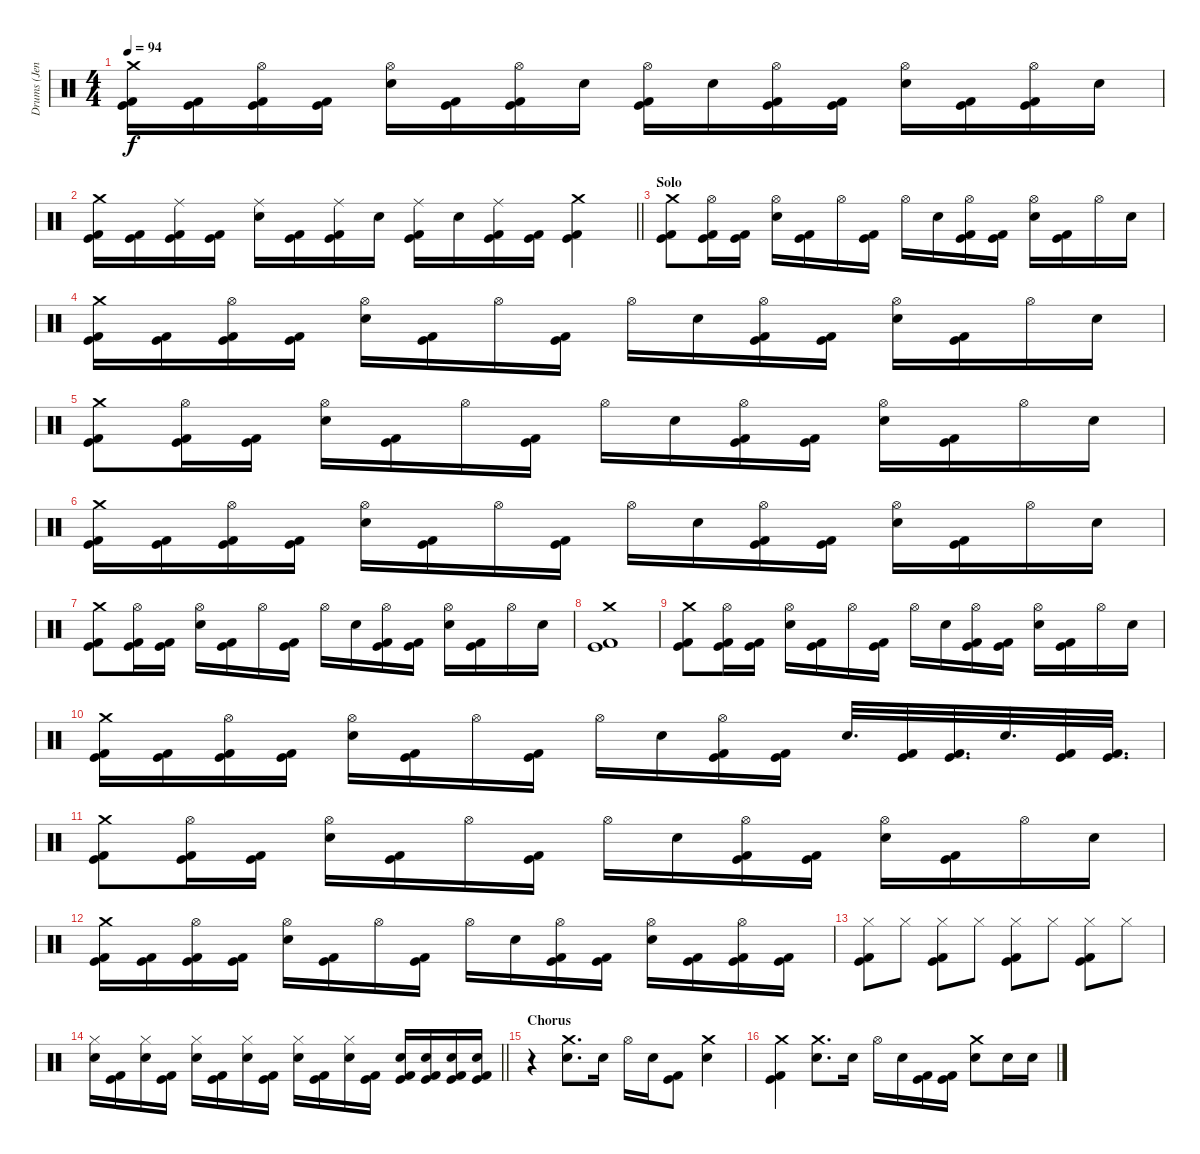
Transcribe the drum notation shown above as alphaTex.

\track ("Drums (Jen Ledger)" "Drums (Jen") {instrument percussion}
\staff {score}
\articulation defaults
\ts (4 4)
\tempo 94
\clef neutral
\ks c
("Crash medium (hit)" "Kick (hit) 2" "Kick (hit)").16{dy f} ("Kick (hit) 2" "Kick (hit)").16 ("Hi-Hat (open)" "Kick (hit) 2" "Kick (hit)").16 ("Kick (hit) 2" "Kick (hit)").16 ("Electric Snare (hit)" "Hi-Hat (open)").16 ("Kick (hit) 2" "Kick (hit)").16 ("Hi-Hat (open)" "Kick (hit) 2" "Kick (hit)").16 "Electric Snare (hit)".16 ("Hi-Hat (open)" "Kick (hit) 2" "Kick (hit)").16 "Electric Snare (hit)".16 ("Hi-Hat (open)" "Kick (hit) 2" "Kick (hit)").16 ("Kick (hit) 2" "Kick (hit)").16 ("Electric Snare (hit)" "Hi-Hat (open)").16 ("Kick (hit) 2" "Kick (hit)").16 ("Hi-Hat (open)" "Kick (hit) 2" "Kick (hit)").16 "Electric Snare (hit)".16 |
\barLineRight lightlight
("Crash medium (hit)" "Kick (hit) 2" "Kick (hit)").16 ("Kick (hit) 2" "Kick (hit)").16 ("Ride (middle)" "Kick (hit) 2" "Kick (hit)").16 ("Kick (hit) 2" "Kick (hit)").16 ("Electric Snare (hit)" "Ride (middle)").16 ("Kick (hit) 2" "Kick (hit)").16 ("Ride (middle)" "Kick (hit) 2" "Kick (hit)").16 "Electric Snare (hit)".16 ("Ride (middle)" "Kick (hit) 2" "Kick (hit)").16 "Electric Snare (hit)".16 ("Ride (middle)" "Kick (hit) 2" "Kick (hit)").16 ("Kick (hit) 2" "Kick (hit)").16 ("Crash medium (hit)" "Kick (hit) 2" "Kick (hit)").4 |
\section ("" "Solo")
("Crash medium (hit)" "Kick (hit) 2" "Kick (hit)").8 ("Hi-Hat (open)" "Kick (hit) 2" "Kick (hit)").16 ("Kick (hit) 2" "Kick (hit)").16 ("Electric Snare (hit)" "Hi-Hat (open)").16 ("Kick (hit) 2" "Kick (hit)").16 "Hi-Hat (open)".16 ("Kick (hit) 2" "Kick (hit)").16 "Hi-Hat (open)".16 "Electric Snare (hit)".16 ("Hi-Hat (open)" "Kick (hit) 2" "Kick (hit)").16 ("Kick (hit) 2" "Kick (hit)").16 ("Electric Snare (hit)" "Hi-Hat (open)").16 ("Kick (hit) 2" "Kick (hit)").16 "Hi-Hat (open)".16 "Electric Snare (hit)".16 |
("Crash medium (hit)" "Kick (hit) 2" "Kick (hit)").16 ("Kick (hit) 2" "Kick (hit)").16 ("Hi-Hat (open)" "Kick (hit) 2" "Kick (hit)").16 ("Kick (hit) 2" "Kick (hit)").16 ("Electric Snare (hit)" "Hi-Hat (open)").16 ("Kick (hit) 2" "Kick (hit)").16 "Hi-Hat (open)".16 ("Kick (hit) 2" "Kick (hit)").16 "Hi-Hat (open)".16 "Electric Snare (hit)".16 ("Hi-Hat (open)" "Kick (hit) 2" "Kick (hit)").16 ("Kick (hit) 2" "Kick (hit)").16 ("Electric Snare (hit)" "Hi-Hat (open)").16 ("Kick (hit) 2" "Kick (hit)").16 "Hi-Hat (open)".16 "Electric Snare (hit)".16 |
("Crash medium (hit)" "Kick (hit) 2" "Kick (hit)").8 ("Hi-Hat (open)" "Kick (hit) 2" "Kick (hit)").16 ("Kick (hit) 2" "Kick (hit)").16 ("Electric Snare (hit)" "Hi-Hat (open)").16 ("Kick (hit) 2" "Kick (hit)").16 "Hi-Hat (open)".16 ("Kick (hit) 2" "Kick (hit)").16 "Hi-Hat (open)".16 "Electric Snare (hit)".16 ("Hi-Hat (open)" "Kick (hit) 2" "Kick (hit)").16 ("Kick (hit) 2" "Kick (hit)").16 ("Electric Snare (hit)" "Hi-Hat (open)").16 ("Kick (hit) 2" "Kick (hit)").16 "Hi-Hat (open)".16 "Electric Snare (hit)".16 |
("Crash medium (hit)" "Kick (hit) 2" "Kick (hit)").16 ("Kick (hit) 2" "Kick (hit)").16 ("Hi-Hat (open)" "Kick (hit) 2" "Kick (hit)").16 ("Kick (hit) 2" "Kick (hit)").16 ("Electric Snare (hit)" "Hi-Hat (open)").16 ("Kick (hit) 2" "Kick (hit)").16 "Hi-Hat (open)".16 ("Kick (hit) 2" "Kick (hit)").16 "Hi-Hat (open)".16 "Electric Snare (hit)".16 ("Hi-Hat (open)" "Kick (hit) 2" "Kick (hit)").16 ("Kick (hit) 2" "Kick (hit)").16 ("Electric Snare (hit)" "Hi-Hat (open)").16 ("Kick (hit) 2" "Kick (hit)").16 "Hi-Hat (open)".16 "Electric Snare (hit)".16 |
("Crash medium (hit)" "Kick (hit) 2" "Kick (hit)").8 ("Hi-Hat (open)" "Kick (hit) 2" "Kick (hit)").16 ("Kick (hit) 2" "Kick (hit)").16 ("Electric Snare (hit)" "Hi-Hat (open)").16 ("Kick (hit) 2" "Kick (hit)").16 "Hi-Hat (open)".16 ("Kick (hit) 2" "Kick (hit)").16 "Hi-Hat (open)".16 "Electric Snare (hit)".16 ("Hi-Hat (open)" "Kick (hit) 2" "Kick (hit)").16 ("Kick (hit) 2" "Kick (hit)").16 ("Electric Snare (hit)" "Hi-Hat (open)").16 ("Kick (hit) 2" "Kick (hit)").16 "Hi-Hat (open)".16 "Electric Snare (hit)".16 |
("Crash medium (hit)" "Kick (hit) 2" "Kick (hit)").1 |
("Crash medium (hit)" "Kick (hit) 2" "Kick (hit)").8 ("Hi-Hat (open)" "Kick (hit) 2" "Kick (hit)").16 ("Kick (hit) 2" "Kick (hit)").16 ("Electric Snare (hit)" "Hi-Hat (open)").16 ("Kick (hit) 2" "Kick (hit)").16 "Hi-Hat (open)".16 ("Kick (hit) 2" "Kick (hit)").16 "Hi-Hat (open)".16 "Electric Snare (hit)".16 ("Hi-Hat (open)" "Kick (hit) 2" "Kick (hit)").16 ("Kick (hit) 2" "Kick (hit)").16 ("Electric Snare (hit)" "Hi-Hat (open)").16 ("Kick (hit) 2" "Kick (hit)").16 "Hi-Hat (open)".16 "Electric Snare (hit)".16 |
("Crash medium (hit)" "Kick (hit) 2" "Kick (hit)").16 ("Kick (hit) 2" "Kick (hit)").16 ("Hi-Hat (open)" "Kick (hit) 2" "Kick (hit)").16 ("Kick (hit) 2" "Kick (hit)").16 ("Electric Snare (hit)" "Hi-Hat (open)").16 ("Kick (hit) 2" "Kick (hit)").16 "Hi-Hat (open)".16 ("Kick (hit) 2" "Kick (hit)").16 "Hi-Hat (open)".16 "Electric Snare (hit)".16 ("Hi-Hat (open)" "Kick (hit) 2" "Kick (hit)").16 ("Kick (hit) 2" "Kick (hit)").16 "Electric Snare (hit)".32{d} ("Kick (hit) 2" "Kick (hit)").32 ("Kick (hit) 2" "Kick (hit)").32{d} "Electric Snare (hit)".32{d} ("Kick (hit) 2" "Kick (hit)").32 ("Kick (hit) 2" "Kick (hit)").32{d} |
("Crash medium (hit)" "Kick (hit) 2" "Kick (hit)").8 ("Hi-Hat (open)" "Kick (hit) 2" "Kick (hit)").16 ("Kick (hit) 2" "Kick (hit)").16 ("Electric Snare (hit)" "Hi-Hat (open)").16 ("Kick (hit) 2" "Kick (hit)").16 "Hi-Hat (open)".16 ("Kick (hit) 2" "Kick (hit)").16 "Hi-Hat (open)".16 "Electric Snare (hit)".16 ("Hi-Hat (open)" "Kick (hit) 2" "Kick (hit)").16 ("Kick (hit) 2" "Kick (hit)").16 ("Electric Snare (hit)" "Hi-Hat (open)").16 ("Kick (hit) 2" "Kick (hit)").16 "Hi-Hat (open)".16 "Electric Snare (hit)".16 |
("Crash medium (hit)" "Kick (hit) 2" "Kick (hit)").16 ("Kick (hit) 2" "Kick (hit)").16 ("Hi-Hat (open)" "Kick (hit) 2" "Kick (hit)").16 ("Kick (hit) 2" "Kick (hit)").16 ("Electric Snare (hit)" "Hi-Hat (open)").16 ("Kick (hit) 2" "Kick (hit)").16 "Hi-Hat (open)".16 ("Kick (hit) 2" "Kick (hit)").16 "Hi-Hat (open)".16 "Electric Snare (hit)".16 ("Hi-Hat (open)" "Kick (hit) 2" "Kick (hit)").16 ("Kick (hit) 2" "Kick (hit)").16 ("Electric Snare (hit)" "Hi-Hat (open)").16 ("Kick (hit) 2" "Kick (hit)").16 ("Hi-Hat (open)" "Kick (hit) 2" "Kick (hit)").16 ("Kick (hit) 2" "Kick (hit)").16 |
("Hi-Hat (closed)" "Kick (hit) 2" "Kick (hit)").8 "Hi-Hat (closed)".8 ("Hi-Hat (closed)" "Kick (hit) 2" "Kick (hit)").8 "Hi-Hat (closed)".8 ("Hi-Hat (closed)" "Kick (hit) 2" "Kick (hit)").8 "Hi-Hat (closed)".8 ("Hi-Hat (closed)" "Kick (hit) 2" "Kick (hit)").8 "Hi-Hat (closed)".8 |
\barLineRight lightlight
("Electric Snare (hit)" "Hi-Hat (closed)").16 ("Kick (hit)" "Kick (hit) 2").16 ("Electric Snare (hit)" "Hi-Hat (closed)").16 ("Kick (hit)" "Kick (hit) 2").16 ("Electric Snare (hit)" "Hi-Hat (closed)").16 ("Kick (hit)" "Kick (hit) 2").16 ("Electric Snare (hit)" "Hi-Hat (closed)").16 ("Kick (hit)" "Kick (hit) 2").16 ("Electric Snare (hit)" "Hi-Hat (closed)").16 ("Kick (hit)" "Kick (hit) 2").16 ("Electric Snare (hit)" "Hi-Hat (closed)").16 ("Kick (hit)" "Kick (hit) 2").16 ("Electric Snare (hit)" "Kick (hit) 2" "Kick (hit)").16 ("Electric Snare (hit)" "Kick (hit) 2" "Kick (hit)").16 ("Electric Snare (hit)" "Kick (hit) 2" "Kick (hit)").16 ("Electric Snare (hit)" "Kick (hit) 2" "Kick (hit)").16 |
\section ("" "Chorus")
r.4 ("Electric Snare (hit)" "Crash medium (hit)").8{d} "Electric Snare (hit)".16 "Hi-Hat (open)".16 "Electric Snare (hit)".16 ("Kick (hit) 2" "Kick (hit)").8 ("Electric Snare (hit)" "Crash medium (hit)").4 |
("Crash medium (hit)" "Kick (hit) 2" "Kick (hit)").4 ("Electric Snare (hit)" "Crash medium (hit)").8{d} "Electric Snare (hit)".16 "Hi-Hat (open)".16 "Electric Snare (hit)".16 ("Kick (hit) 2" "Kick (hit)").16 ("Kick (hit) 2" "Kick (hit)").16 ("Electric Snare (hit)" "Crash medium (hit)").8 "Electric Snare (hit)".16 "Electric Snare (hit)".16
